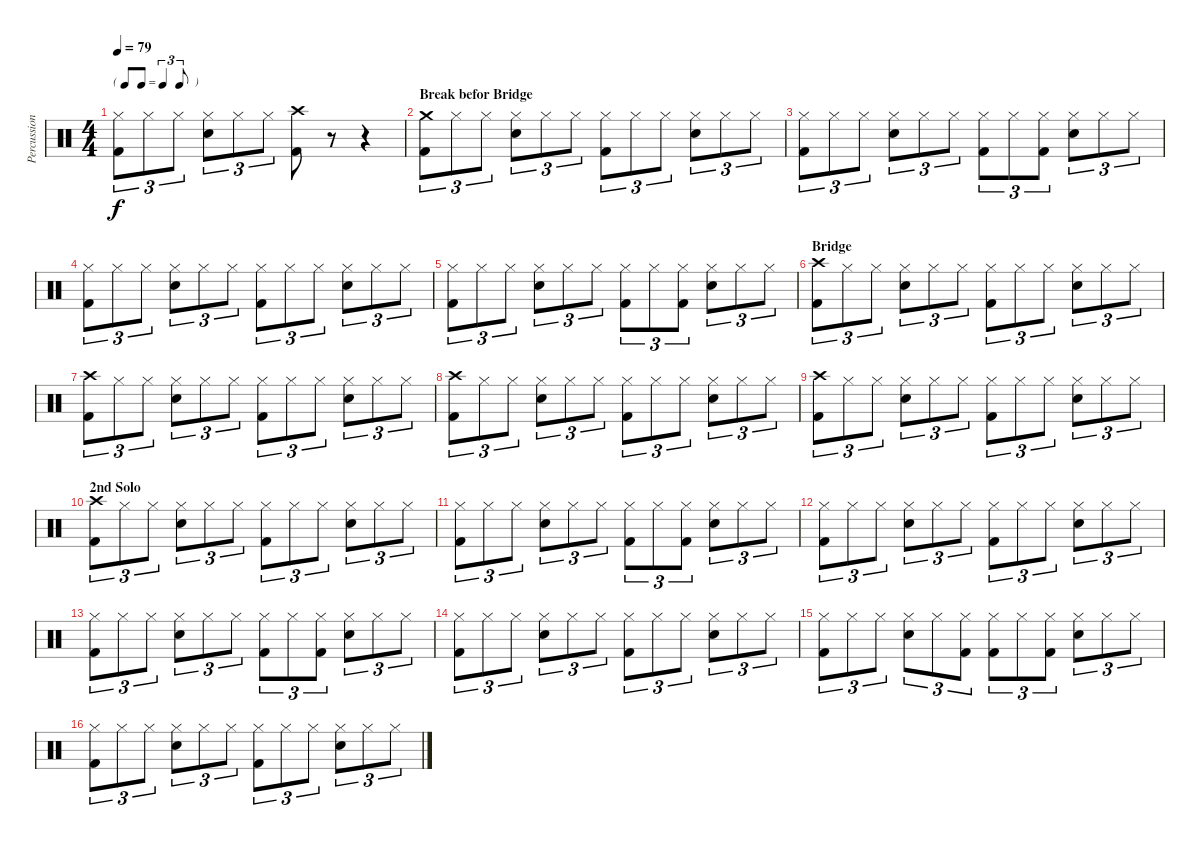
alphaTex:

\track ("Percussion" "Percussion") {instrument percussion}
\staff {score}
\articulation defaults
\ts (4 4)
\tf triplet8th
\tempo 79
\clef neutral
\ks c
("Hi-Hat (closed)" "Kick (hit) 2").8{tu (3 2) dy f} "Hi-Hat (closed)".8{tu (3 2)} "Hi-Hat (closed)".8{tu (3 2)} ("Hi-Hat (closed)" "Snare (hit) 2").8{tu (3 2)} "Hi-Hat (closed)".8{tu (3 2)} "Hi-Hat (closed)".8{tu (3 2)} ("Crash high (hit)" "Kick (hit) 2").8 r.8 r.4 |
\section ("" "Break befor Bridge")
("Crash medium (hit)" "Kick (hit) 2").8{tu (3 2)} "Hi-Hat (closed)".8{tu (3 2)} "Hi-Hat (closed)".8{tu (3 2)} ("Hi-Hat (closed)" "Snare (hit) 2").8{tu (3 2)} "Hi-Hat (closed)".8{tu (3 2)} "Hi-Hat (closed)".8{tu (3 2)} ("Hi-Hat (closed)" "Kick (hit) 2").8{tu (3 2)} "Hi-Hat (closed)".8{tu (3 2)} "Hi-Hat (closed)".8{tu (3 2)} ("Hi-Hat (closed)" "Snare (hit) 2").8{tu (3 2)} "Hi-Hat (closed)".8{tu (3 2)} "Hi-Hat (closed)".8{tu (3 2)} |
("Hi-Hat (closed)" "Kick (hit) 2").8{tu (3 2)} "Hi-Hat (closed)".8{tu (3 2)} "Hi-Hat (closed)".8{tu (3 2)} ("Hi-Hat (closed)" "Snare (hit) 2").8{tu (3 2)} "Hi-Hat (closed)".8{tu (3 2)} "Hi-Hat (closed)".8{tu (3 2)} ("Hi-Hat (closed)" "Kick (hit) 2").8{tu (3 2)} "Hi-Hat (closed)".8{tu (3 2)} ("Hi-Hat (closed)" "Kick (hit) 2").8{tu (3 2)} ("Hi-Hat (closed)" "Snare (hit) 2").8{tu (3 2)} "Hi-Hat (closed)".8{tu (3 2)} "Hi-Hat (closed)".8{tu (3 2)} |
("Hi-Hat (closed)" "Kick (hit) 2").8{tu (3 2)} "Hi-Hat (closed)".8{tu (3 2)} "Hi-Hat (closed)".8{tu (3 2)} ("Hi-Hat (closed)" "Snare (hit) 2").8{tu (3 2)} "Hi-Hat (closed)".8{tu (3 2)} "Hi-Hat (closed)".8{tu (3 2)} ("Hi-Hat (closed)" "Kick (hit) 2").8{tu (3 2)} "Hi-Hat (closed)".8{tu (3 2)} "Hi-Hat (closed)".8{tu (3 2)} ("Hi-Hat (closed)" "Snare (hit) 2").8{tu (3 2)} "Hi-Hat (closed)".8{tu (3 2)} "Hi-Hat (closed)".8{tu (3 2)} |
("Hi-Hat (closed)" "Kick (hit) 2").8{tu (3 2)} "Hi-Hat (closed)".8{tu (3 2)} "Hi-Hat (closed)".8{tu (3 2)} ("Hi-Hat (closed)" "Snare (hit) 2").8{tu (3 2)} "Hi-Hat (closed)".8{tu (3 2)} "Hi-Hat (closed)".8{tu (3 2)} ("Hi-Hat (closed)" "Kick (hit) 2").8{tu (3 2)} "Hi-Hat (closed)".8{tu (3 2)} ("Hi-Hat (closed)" "Kick (hit) 2").8{tu (3 2)} ("Hi-Hat (closed)" "Snare (hit) 2").8{tu (3 2)} "Hi-Hat (closed)".8{tu (3 2)} "Hi-Hat (closed)".8{tu (3 2)} |
\section ("" "Bridge")
("Crash high (hit)" "Kick (hit) 2").8{tu (3 2)} "Hi-Hat (closed)".8{tu (3 2)} "Hi-Hat (closed)".8{tu (3 2)} ("Hi-Hat (closed)" "Snare (hit) 2").8{tu (3 2)} "Hi-Hat (closed)".8{tu (3 2)} "Hi-Hat (closed)".8{tu (3 2)} ("Hi-Hat (closed)" "Kick (hit) 2").8{tu (3 2)} "Hi-Hat (closed)".8{tu (3 2)} "Hi-Hat (closed)".8{tu (3 2)} ("Hi-Hat (closed)" "Snare (hit) 2").8{tu (3 2)} "Hi-Hat (closed)".8{tu (3 2)} "Hi-Hat (closed)".8{tu (3 2)} |
("Crash high (hit)" "Kick (hit) 2").8{tu (3 2)} "Hi-Hat (closed)".8{tu (3 2)} "Hi-Hat (closed)".8{tu (3 2)} ("Hi-Hat (closed)" "Snare (hit) 2").8{tu (3 2)} "Hi-Hat (closed)".8{tu (3 2)} "Hi-Hat (closed)".8{tu (3 2)} ("Hi-Hat (closed)" "Kick (hit) 2").8{tu (3 2)} "Hi-Hat (closed)".8{tu (3 2)} "Hi-Hat (closed)".8{tu (3 2)} ("Hi-Hat (closed)" "Snare (hit) 2").8{tu (3 2)} "Hi-Hat (closed)".8{tu (3 2)} "Hi-Hat (closed)".8{tu (3 2)} |
("Crash high (hit)" "Kick (hit) 2").8{tu (3 2)} "Hi-Hat (closed)".8{tu (3 2)} "Hi-Hat (closed)".8{tu (3 2)} ("Hi-Hat (closed)" "Snare (hit) 2").8{tu (3 2)} "Hi-Hat (closed)".8{tu (3 2)} "Hi-Hat (closed)".8{tu (3 2)} ("Hi-Hat (closed)" "Kick (hit) 2").8{tu (3 2)} "Hi-Hat (closed)".8{tu (3 2)} "Hi-Hat (closed)".8{tu (3 2)} ("Hi-Hat (closed)" "Snare (hit) 2").8{tu (3 2)} "Hi-Hat (closed)".8{tu (3 2)} "Hi-Hat (closed)".8{tu (3 2)} |
("Crash high (hit)" "Kick (hit) 2").8{tu (3 2)} "Hi-Hat (closed)".8{tu (3 2)} "Hi-Hat (closed)".8{tu (3 2)} ("Hi-Hat (closed)" "Snare (hit) 2").8{tu (3 2)} "Hi-Hat (closed)".8{tu (3 2)} "Hi-Hat (closed)".8{tu (3 2)} ("Hi-Hat (closed)" "Kick (hit) 2").8{tu (3 2)} "Hi-Hat (closed)".8{tu (3 2)} "Hi-Hat (closed)".8{tu (3 2)} ("Hi-Hat (closed)" "Snare (hit) 2").8{tu (3 2)} "Hi-Hat (closed)".8{tu (3 2)} "Hi-Hat (closed)".8{tu (3 2)} |
\section ("" "2nd Solo")
("Crash high (hit)" "Kick (hit) 2").8{tu (3 2)} "Hi-Hat (closed)".8{tu (3 2)} "Hi-Hat (closed)".8{tu (3 2)} ("Hi-Hat (closed)" "Snare (hit) 2").8{tu (3 2)} "Hi-Hat (closed)".8{tu (3 2)} "Hi-Hat (closed)".8{tu (3 2)} ("Hi-Hat (closed)" "Kick (hit) 2").8{tu (3 2)} "Hi-Hat (closed)".8{tu (3 2)} "Hi-Hat (closed)".8{tu (3 2)} ("Hi-Hat (closed)" "Snare (hit) 2").8{tu (3 2)} "Hi-Hat (closed)".8{tu (3 2)} "Hi-Hat (closed)".8{tu (3 2)} |
("Hi-Hat (closed)" "Kick (hit) 2").8{tu (3 2)} "Hi-Hat (closed)".8{tu (3 2)} "Hi-Hat (closed)".8{tu (3 2)} ("Hi-Hat (closed)" "Snare (hit) 2").8{tu (3 2)} "Hi-Hat (closed)".8{tu (3 2)} "Hi-Hat (closed)".8{tu (3 2)} ("Hi-Hat (closed)" "Kick (hit) 2").8{tu (3 2)} "Hi-Hat (closed)".8{tu (3 2)} ("Hi-Hat (closed)" "Kick (hit) 2").8{tu (3 2)} ("Hi-Hat (closed)" "Snare (hit) 2").8{tu (3 2)} "Hi-Hat (closed)".8{tu (3 2)} "Hi-Hat (closed)".8{tu (3 2)} |
("Hi-Hat (closed)" "Kick (hit) 2").8{tu (3 2)} "Hi-Hat (closed)".8{tu (3 2)} "Hi-Hat (closed)".8{tu (3 2)} ("Hi-Hat (closed)" "Snare (hit) 2").8{tu (3 2)} "Hi-Hat (closed)".8{tu (3 2)} "Hi-Hat (closed)".8{tu (3 2)} ("Hi-Hat (closed)" "Kick (hit) 2").8{tu (3 2)} "Hi-Hat (closed)".8{tu (3 2)} "Hi-Hat (closed)".8{tu (3 2)} ("Hi-Hat (closed)" "Snare (hit) 2").8{tu (3 2)} "Hi-Hat (closed)".8{tu (3 2)} "Hi-Hat (closed)".8{tu (3 2)} |
("Hi-Hat (closed)" "Kick (hit) 2").8{tu (3 2)} "Hi-Hat (closed)".8{tu (3 2)} "Hi-Hat (closed)".8{tu (3 2)} ("Hi-Hat (closed)" "Snare (hit) 2").8{tu (3 2)} "Hi-Hat (closed)".8{tu (3 2)} "Hi-Hat (closed)".8{tu (3 2)} ("Hi-Hat (closed)" "Kick (hit) 2").8{tu (3 2)} "Hi-Hat (closed)".8{tu (3 2)} ("Hi-Hat (closed)" "Kick (hit) 2").8{tu (3 2)} ("Hi-Hat (closed)" "Snare (hit) 2").8{tu (3 2)} "Hi-Hat (closed)".8{tu (3 2)} "Hi-Hat (closed)".8{tu (3 2)} |
("Hi-Hat (closed)" "Kick (hit) 2").8{tu (3 2)} "Hi-Hat (closed)".8{tu (3 2)} "Hi-Hat (closed)".8{tu (3 2)} ("Hi-Hat (closed)" "Snare (hit) 2").8{tu (3 2)} "Hi-Hat (closed)".8{tu (3 2)} "Hi-Hat (closed)".8{tu (3 2)} ("Hi-Hat (closed)" "Kick (hit) 2").8{tu (3 2)} "Hi-Hat (closed)".8{tu (3 2)} "Hi-Hat (closed)".8{tu (3 2)} ("Hi-Hat (closed)" "Snare (hit) 2").8{tu (3 2)} "Hi-Hat (closed)".8{tu (3 2)} "Hi-Hat (closed)".8{tu (3 2)} |
("Hi-Hat (closed)" "Kick (hit) 2").8{tu (3 2)} "Hi-Hat (closed)".8{tu (3 2)} "Hi-Hat (closed)".8{tu (3 2)} ("Hi-Hat (closed)" "Snare (hit) 2").8{tu (3 2)} "Hi-Hat (closed)".8{tu (3 2)} ("Hi-Hat (closed)" "Kick (hit) 2").8{tu (3 2)} ("Hi-Hat (closed)" "Kick (hit) 2").8{tu (3 2)} "Hi-Hat (closed)".8{tu (3 2)} ("Hi-Hat (closed)" "Kick (hit) 2").8{tu (3 2)} ("Hi-Hat (closed)" "Snare (hit) 2").8{tu (3 2)} "Hi-Hat (closed)".8{tu (3 2)} "Hi-Hat (closed)".8{tu (3 2)} |
("Hi-Hat (closed)" "Kick (hit) 2").8{tu (3 2)} "Hi-Hat (closed)".8{tu (3 2)} "Hi-Hat (closed)".8{tu (3 2)} ("Hi-Hat (closed)" "Snare (hit) 2").8{tu (3 2)} "Hi-Hat (closed)".8{tu (3 2)} "Hi-Hat (closed)".8{tu (3 2)} ("Hi-Hat (closed)" "Kick (hit) 2").8{tu (3 2)} "Hi-Hat (closed)".8{tu (3 2)} "Hi-Hat (closed)".8{tu (3 2)} ("Hi-Hat (closed)" "Snare (hit) 2").8{tu (3 2)} "Hi-Hat (closed)".8{tu (3 2)} "Hi-Hat (closed)".8{tu (3 2)}
